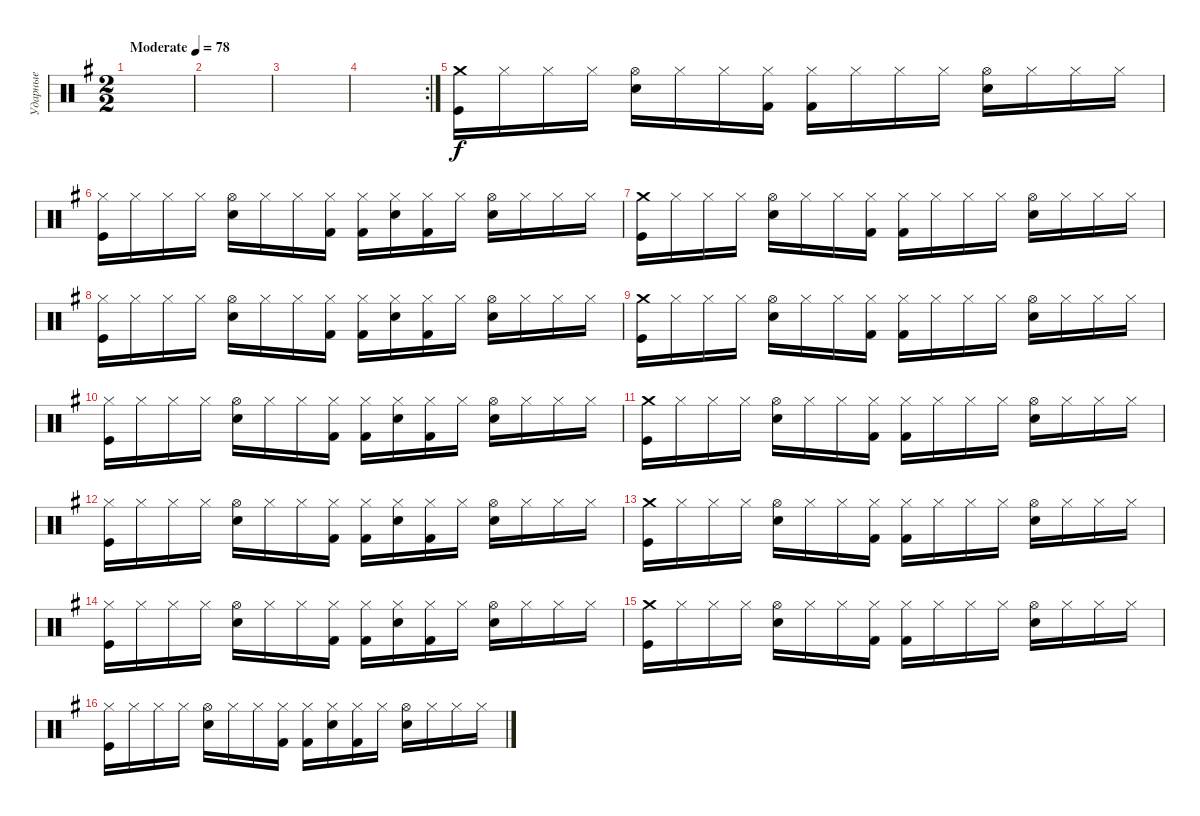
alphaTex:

\track ("Ударные" "Ударные") {instrument percussion}
\staff {score}
\articulation defaults
\ts (2 2)
\tempo (78 "Moderate")
\clef neutral
\ks eminor
|
|
|
\rc 2
|
("Crash medium (hit)" "Kick (hit)").16 "Hi-Hat (closed)".16 "Hi-Hat (closed)".16 "Hi-Hat (closed)".16 ("Hi-Hat (open)" "Electric Snare (hit)").16 "Hi-Hat (closed)".16 "Hi-Hat (closed)".16 ("Hi-Hat (closed)" "Kick (hit) 2").16 ("Hi-Hat (closed)" "Kick (hit) 2").16 "Hi-Hat (closed)".16 "Hi-Hat (closed)".16 "Hi-Hat (closed)".16 ("Hi-Hat (open)" "Electric Snare (hit)").16 "Hi-Hat (closed)".16 "Hi-Hat (closed)".16 "Hi-Hat (closed)".16 |
("Hi-Hat (closed)" "Kick (hit)").16 "Hi-Hat (closed)".16 "Hi-Hat (closed)".16 "Hi-Hat (closed)".16 ("Hi-Hat (open)" "Electric Snare (hit)").16 "Hi-Hat (closed)".16 "Hi-Hat (closed)".16 ("Hi-Hat (closed)" "Kick (hit) 2").16 ("Hi-Hat (closed)" "Kick (hit) 2").16 ("Hi-Hat (closed)" "Electric Snare (hit)").16 ("Hi-Hat (closed)" "Kick (hit) 2").16 "Hi-Hat (closed)".16 ("Hi-Hat (open)" "Electric Snare (hit)").16 "Hi-Hat (closed)".16 "Hi-Hat (closed)".16 "Hi-Hat (closed)".16 |
("Crash medium (hit)" "Kick (hit)").16 "Hi-Hat (closed)".16 "Hi-Hat (closed)".16 "Hi-Hat (closed)".16 ("Hi-Hat (open)" "Electric Snare (hit)").16 "Hi-Hat (closed)".16 "Hi-Hat (closed)".16 ("Hi-Hat (closed)" "Kick (hit) 2").16 ("Hi-Hat (closed)" "Kick (hit) 2").16 "Hi-Hat (closed)".16 "Hi-Hat (closed)".16 "Hi-Hat (closed)".16 ("Hi-Hat (open)" "Electric Snare (hit)").16 "Hi-Hat (closed)".16 "Hi-Hat (closed)".16 "Hi-Hat (closed)".16 |
("Hi-Hat (closed)" "Kick (hit)").16 "Hi-Hat (closed)".16 "Hi-Hat (closed)".16 "Hi-Hat (closed)".16 ("Hi-Hat (open)" "Electric Snare (hit)").16 "Hi-Hat (closed)".16 "Hi-Hat (closed)".16 ("Hi-Hat (closed)" "Kick (hit) 2").16 ("Hi-Hat (closed)" "Kick (hit) 2").16 ("Hi-Hat (closed)" "Electric Snare (hit)").16 ("Hi-Hat (closed)" "Kick (hit) 2").16 "Hi-Hat (closed)".16 ("Hi-Hat (open)" "Electric Snare (hit)").16 "Hi-Hat (closed)".16 "Hi-Hat (closed)".16 "Hi-Hat (closed)".16 |
("Crash medium (hit)" "Kick (hit)").16 "Hi-Hat (closed)".16 "Hi-Hat (closed)".16 "Hi-Hat (closed)".16 ("Hi-Hat (open)" "Electric Snare (hit)").16 "Hi-Hat (closed)".16 "Hi-Hat (closed)".16 ("Hi-Hat (closed)" "Kick (hit) 2").16 ("Hi-Hat (closed)" "Kick (hit) 2").16 "Hi-Hat (closed)".16 "Hi-Hat (closed)".16 "Hi-Hat (closed)".16 ("Hi-Hat (open)" "Electric Snare (hit)").16 "Hi-Hat (closed)".16 "Hi-Hat (closed)".16 "Hi-Hat (closed)".16 |
("Hi-Hat (closed)" "Kick (hit)").16 "Hi-Hat (closed)".16 "Hi-Hat (closed)".16 "Hi-Hat (closed)".16 ("Hi-Hat (open)" "Electric Snare (hit)").16 "Hi-Hat (closed)".16 "Hi-Hat (closed)".16 ("Hi-Hat (closed)" "Kick (hit) 2").16 ("Hi-Hat (closed)" "Kick (hit) 2").16 ("Hi-Hat (closed)" "Electric Snare (hit)").16 ("Hi-Hat (closed)" "Kick (hit) 2").16 "Hi-Hat (closed)".16 ("Hi-Hat (open)" "Electric Snare (hit)").16 "Hi-Hat (closed)".16 "Hi-Hat (closed)".16 "Hi-Hat (closed)".16 |
("Crash medium (hit)" "Kick (hit)").16 "Hi-Hat (closed)".16 "Hi-Hat (closed)".16 "Hi-Hat (closed)".16 ("Hi-Hat (open)" "Electric Snare (hit)").16 "Hi-Hat (closed)".16 "Hi-Hat (closed)".16 ("Hi-Hat (closed)" "Kick (hit) 2").16 ("Hi-Hat (closed)" "Kick (hit) 2").16 "Hi-Hat (closed)".16 "Hi-Hat (closed)".16 "Hi-Hat (closed)".16 ("Hi-Hat (open)" "Electric Snare (hit)").16 "Hi-Hat (closed)".16 "Hi-Hat (closed)".16 "Hi-Hat (closed)".16 |
("Hi-Hat (closed)" "Kick (hit)").16 "Hi-Hat (closed)".16 "Hi-Hat (closed)".16 "Hi-Hat (closed)".16 ("Hi-Hat (open)" "Electric Snare (hit)").16 "Hi-Hat (closed)".16 "Hi-Hat (closed)".16 ("Hi-Hat (closed)" "Kick (hit) 2").16 ("Hi-Hat (closed)" "Kick (hit) 2").16 ("Hi-Hat (closed)" "Electric Snare (hit)").16 ("Hi-Hat (closed)" "Kick (hit) 2").16 "Hi-Hat (closed)".16 ("Hi-Hat (open)" "Electric Snare (hit)").16 "Hi-Hat (closed)".16 "Hi-Hat (closed)".16 "Hi-Hat (closed)".16 |
("Crash medium (hit)" "Kick (hit)").16 "Hi-Hat (closed)".16 "Hi-Hat (closed)".16 "Hi-Hat (closed)".16 ("Hi-Hat (open)" "Electric Snare (hit)").16 "Hi-Hat (closed)".16 "Hi-Hat (closed)".16 ("Hi-Hat (closed)" "Kick (hit) 2").16 ("Hi-Hat (closed)" "Kick (hit) 2").16 "Hi-Hat (closed)".16 "Hi-Hat (closed)".16 "Hi-Hat (closed)".16 ("Hi-Hat (open)" "Electric Snare (hit)").16 "Hi-Hat (closed)".16 "Hi-Hat (closed)".16 "Hi-Hat (closed)".16 |
("Hi-Hat (closed)" "Kick (hit)").16 "Hi-Hat (closed)".16 "Hi-Hat (closed)".16 "Hi-Hat (closed)".16 ("Hi-Hat (open)" "Electric Snare (hit)").16 "Hi-Hat (closed)".16 "Hi-Hat (closed)".16 ("Hi-Hat (closed)" "Kick (hit) 2").16 ("Hi-Hat (closed)" "Kick (hit) 2").16 ("Hi-Hat (closed)" "Electric Snare (hit)").16 ("Hi-Hat (closed)" "Kick (hit) 2").16 "Hi-Hat (closed)".16 ("Hi-Hat (open)" "Electric Snare (hit)").16 "Hi-Hat (closed)".16 "Hi-Hat (closed)".16 "Hi-Hat (closed)".16 |
("Crash medium (hit)" "Kick (hit)").16 "Hi-Hat (closed)".16 "Hi-Hat (closed)".16 "Hi-Hat (closed)".16 ("Hi-Hat (open)" "Electric Snare (hit)").16 "Hi-Hat (closed)".16 "Hi-Hat (closed)".16 ("Hi-Hat (closed)" "Kick (hit) 2").16 ("Hi-Hat (closed)" "Kick (hit) 2").16 "Hi-Hat (closed)".16 "Hi-Hat (closed)".16 "Hi-Hat (closed)".16 ("Hi-Hat (open)" "Electric Snare (hit)").16 "Hi-Hat (closed)".16 "Hi-Hat (closed)".16 "Hi-Hat (closed)".16 |
("Hi-Hat (closed)" "Kick (hit)").16 "Hi-Hat (closed)".16 "Hi-Hat (closed)".16 "Hi-Hat (closed)".16 ("Hi-Hat (open)" "Electric Snare (hit)").16 "Hi-Hat (closed)".16 "Hi-Hat (closed)".16 ("Hi-Hat (closed)" "Kick (hit) 2").16 ("Hi-Hat (closed)" "Kick (hit) 2").16 ("Hi-Hat (closed)" "Electric Snare (hit)").16 ("Hi-Hat (closed)" "Kick (hit) 2").16 "Hi-Hat (closed)".16 ("Hi-Hat (open)" "Electric Snare (hit)").16 "Hi-Hat (closed)".16 "Hi-Hat (closed)".16 "Hi-Hat (closed)".16
